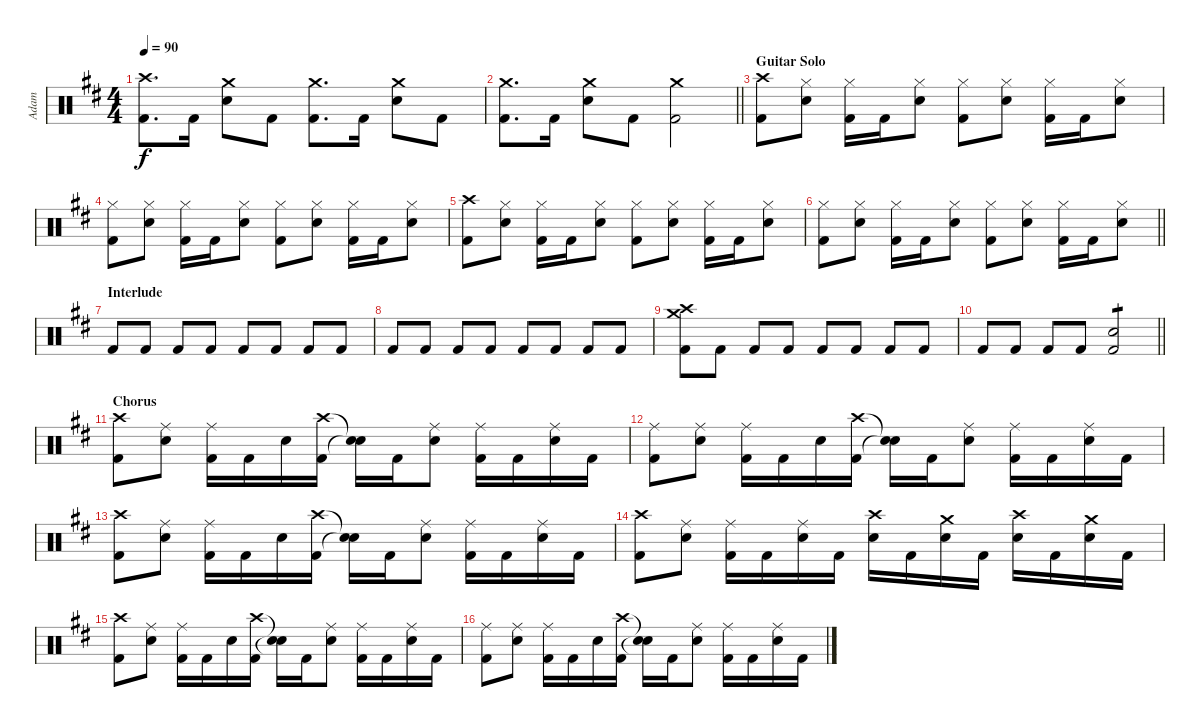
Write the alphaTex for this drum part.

\track ("Adam" "Adam") {instrument percussion}
\staff {score}
\articulation defaults
\ts (4 4)
\tempo 90
\clef neutral
\ks d
("Crash high (hit)" "Kick (hit) 2").8{d dy f} "Kick (hit) 2".16 ("Crash medium (hit)" "Snare (hit) 2").8 "Kick (hit) 2".8 ("Crash medium (hit)" "Kick (hit) 2").8{d} "Kick (hit) 2".16 ("Crash medium (hit)" "Snare (hit) 2").8 "Kick (hit) 2".8 |
\barLineRight lightlight
("Crash medium (hit)" "Kick (hit) 2").8{d} "Kick (hit) 2".16 ("Crash medium (hit)" "Snare (hit) 2").8 "Kick (hit) 2".8 ("Crash medium (hit)" "Kick (hit) 2").2 |
\section ("" "Guitar Solo")
("Crash high (hit)" "Kick (hit) 2").8 ("Hi-Hat (closed)" "Snare (hit) 2").8 ("Hi-Hat (closed)" "Kick (hit) 2").16 "Kick (hit) 2".16 ("Hi-Hat (closed)" "Snare (hit) 2").8 ("Hi-Hat (closed)" "Kick (hit) 2").8 ("Hi-Hat (closed)" "Snare (hit) 2").8 ("Hi-Hat (closed)" "Kick (hit) 2").16 "Kick (hit) 2".16 ("Hi-Hat (closed)" "Snare (hit) 2").8 |
("Hi-Hat (closed)" "Kick (hit) 2").8 ("Hi-Hat (closed)" "Snare (hit) 2").8 ("Hi-Hat (closed)" "Kick (hit) 2").16 "Kick (hit) 2".16 ("Hi-Hat (closed)" "Snare (hit) 2").8 ("Hi-Hat (closed)" "Kick (hit) 2").8 ("Hi-Hat (closed)" "Snare (hit) 2").8 ("Hi-Hat (closed)" "Kick (hit) 2").16 "Kick (hit) 2".16 ("Hi-Hat (closed)" "Snare (hit) 2").8 |
("Crash high (hit)" "Kick (hit) 2").8 ("Hi-Hat (closed)" "Snare (hit) 2").8 ("Hi-Hat (closed)" "Kick (hit) 2").16 "Kick (hit) 2".16 ("Hi-Hat (closed)" "Snare (hit) 2").8 ("Hi-Hat (closed)" "Kick (hit) 2").8 ("Hi-Hat (closed)" "Snare (hit) 2").8 ("Hi-Hat (closed)" "Kick (hit) 2").16 "Kick (hit) 2".16 ("Hi-Hat (closed)" "Snare (hit) 2").8 |
\barLineRight lightlight
("Hi-Hat (closed)" "Kick (hit) 2").8 ("Hi-Hat (closed)" "Snare (hit) 2").8 ("Hi-Hat (closed)" "Kick (hit) 2").16 "Kick (hit) 2".16 ("Hi-Hat (closed)" "Snare (hit) 2").8 ("Hi-Hat (closed)" "Kick (hit) 2").8 ("Hi-Hat (closed)" "Snare (hit) 2").8 ("Hi-Hat (closed)" "Kick (hit) 2").16 "Kick (hit) 2".16 ("Hi-Hat (closed)" "Snare (hit) 2").8 |
\section ("" "Interlude")
"Kick (hit) 2".8 "Kick (hit) 2".8 "Kick (hit) 2".8 "Kick (hit) 2".8 "Kick (hit) 2".8 "Kick (hit) 2".8 "Kick (hit) 2".8 "Kick (hit) 2".8 |
"Kick (hit) 2".8 "Kick (hit) 2".8 "Kick (hit) 2".8 "Kick (hit) 2".8 "Kick (hit) 2".8 "Kick (hit) 2".8 "Kick (hit) 2".8 "Kick (hit) 2".8 |
("Crash high (hit)" "Crash medium (hit)" "Kick (hit) 2").8 "Kick (hit) 2".8 "Kick (hit) 2".8 "Kick (hit) 2".8 "Kick (hit) 2".8 "Kick (hit) 2".8 "Kick (hit) 2".8 "Kick (hit) 2".8 |
\barLineRight lightlight "Kick (hit) 2".8 "Kick (hit) 2".8 "Kick (hit) 2".8 "Kick (hit) 2".8
("Snare (hit) 2" "Kick (hit) 2").2{tp 1} |
\section ("" "Chorus")
("Crash high (hit)" "Kick (hit) 2").8 ("Ride (middle)" "Snare (hit) 2").8 ("Ride (middle)" "Kick (hit) 2").16 "Kick (hit) 2".16 "Snare (hit) 2".16 ("Crash high (hit)" "Kick (hit) 2").16 ("Snare (hit)"{t} "Snare (hit)"{t}).16 "Kick (hit) 2".16 ("Ride (middle)" "Snare (hit) 2").8 ("Ride (middle)" "Kick (hit) 2").16 "Kick (hit) 2".16 ("Ride (middle)" "Snare (hit) 2").16 "Kick (hit) 2".16 |
("Ride (middle)" "Kick (hit) 2").8 ("Ride (middle)" "Snare (hit) 2").8 ("Ride (middle)" "Kick (hit) 2").16 "Kick (hit) 2".16 "Snare (hit) 2".16 ("Crash high (hit)" "Kick (hit) 2").16 ("Snare (hit)"{t} "Snare (hit)"{t}).16 "Kick (hit) 2".16 ("Ride (middle)" "Snare (hit) 2").8 ("Ride (middle)" "Kick (hit) 2").16 "Kick (hit) 2".16 ("Ride (middle)" "Snare (hit) 2").16 "Kick (hit) 2".16 |
("Crash high (hit)" "Kick (hit) 2").8 ("Ride (middle)" "Snare (hit) 2").8 ("Ride (middle)" "Kick (hit) 2").16 "Kick (hit) 2".16 "Snare (hit) 2".16 ("Crash high (hit)" "Kick (hit) 2").16 ("Snare (hit)"{t} "Snare (hit)"{t}).16 "Kick (hit) 2".16 ("Ride (middle)" "Snare (hit) 2").8 ("Ride (middle)" "Kick (hit) 2").16 "Kick (hit) 2".16 ("Ride (middle)" "Snare (hit) 2").16 "Kick (hit) 2".16 |
("Crash high (hit)" "Kick (hit) 2").8 ("Ride (middle)" "Snare (hit) 2").8 ("Ride (middle)" "Kick (hit) 2").16 "Kick (hit) 2".16 ("Ride (middle)" "Snare (hit) 2").16 "Kick (hit) 2".16 ("Crash high (hit)" "Snare (hit) 2").16 "Kick (hit) 2".16 ("Crash medium (hit)" "Snare (hit) 2").16 "Kick (hit) 2".16 ("Crash high (hit)" "Snare (hit) 2").16 "Kick (hit) 2".16 ("Crash medium (hit)" "Snare (hit) 2").16 "Kick (hit) 2".16 |
("Crash high (hit)" "Kick (hit) 2").8 ("Ride (middle)" "Snare (hit) 2").8 ("Ride (middle)" "Kick (hit) 2").16 "Kick (hit) 2".16 "Snare (hit) 2".16 ("Crash high (hit)" "Kick (hit) 2").16 ("Snare (hit)"{t} "Snare (hit)"{t}).16 "Kick (hit) 2".16 ("Ride (middle)" "Snare (hit) 2").8 ("Ride (middle)" "Kick (hit) 2").16 "Kick (hit) 2".16 ("Ride (middle)" "Snare (hit) 2").16 "Kick (hit) 2".16 |
("Ride (middle)" "Kick (hit) 2").8 ("Ride (middle)" "Snare (hit) 2").8 ("Ride (middle)" "Kick (hit) 2").16 "Kick (hit) 2".16 "Snare (hit) 2".16 ("Crash high (hit)" "Kick (hit) 2").16 ("Snare (hit)"{t} "Snare (hit)"{t}).16 "Kick (hit) 2".16 ("Ride (middle)" "Snare (hit) 2").8 ("Ride (middle)" "Kick (hit) 2").16 "Kick (hit) 2".16 ("Ride (middle)" "Snare (hit) 2").16 "Kick (hit) 2".16
